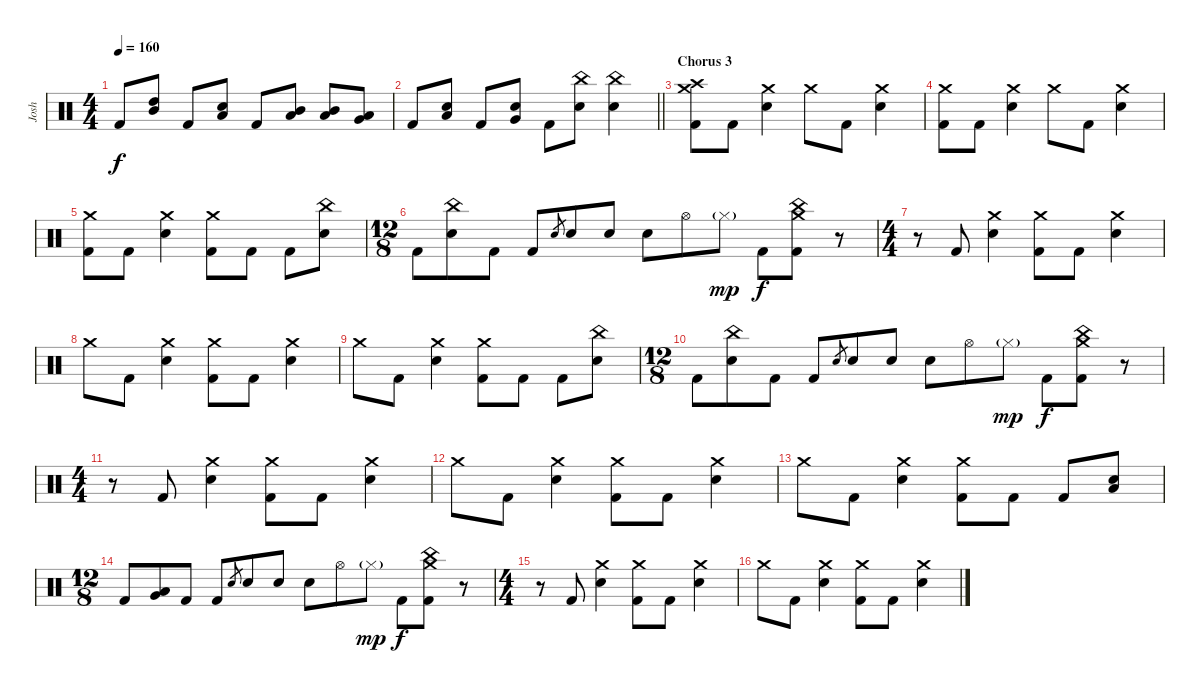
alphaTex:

\track ("Josh" "Josh") {instrument percussion}
\staff {score}
\articulation defaults
\ts (4 4)
\tempo 160
\clef neutral
\ks c "Kick (hit) 2".8{dy f}
("Mid Tom (hit)" "High Tom (hit)").8 "Kick (hit) 2".8 ("Low Tom (hit)" "Electric Snare (hit)").8 "Kick (hit) 2".8 ("Mid Tom (hit)" "Low Tom (hit)").8 ("Mid Tom (hit)" "Low Tom (hit)").8 ("Low Tom (hit)" "Very Low Tom (hit)").8 |
\barLineRight lightlight "Kick (hit) 2".8
("Low Tom (hit)" "Electric Snare (hit)").8 "Kick (hit) 2".8 ("Very Low Tom (hit)" "Electric Snare (hit)").8 "Kick (hit) 2".8 ("China (hit)" "Electric Snare (hit)").8 ("China (hit)" "Electric Snare (hit)").4 |
\section ("" "Chorus 3")
("Crash high (hit)" "Crash medium (hit)" "Kick (hit) 2").8 "Kick (hit) 2".8 ("Crash medium (hit)" "Electric Snare (hit)").4 "Crash medium (hit)".8 "Kick (hit) 2".8 ("Crash medium (hit)" "Electric Snare (hit)").4 |
("Crash medium (hit)" "Kick (hit) 2").8 "Kick (hit) 2".8 ("Crash medium (hit)" "Electric Snare (hit)").4 "Crash medium (hit)".8 "Kick (hit) 2".8 ("Crash medium (hit)" "Electric Snare (hit)").4 |
("Crash medium (hit)" "Kick (hit) 2").8 "Kick (hit) 2".8 ("Crash medium (hit)" "Electric Snare (hit)").4 ("Crash medium (hit)" "Kick (hit) 2").8 "Kick (hit) 2".8 "Kick (hit) 2".8 ("China (hit)" "Electric Snare (hit)").8 |
\ts (12 8)
"Kick (hit) 2".8 ("China (hit)" "Electric Snare (hit)").8 "Kick (hit) 2".8 "Kick (hit) 2".8 "Electric Snare (hit)".8{gr} "Electric Snare (hit)".8 "Electric Snare (hit)".8 "Electric Snare (hit)".8 "Hi-Hat (open)".8 "Hi-Hat (closed)"{g}.8{dy mp} "Kick (hit) 2".8{dy f} ("China (hit)" "Crash medium (hit)" "Kick (hit) 2").8 r.8 |
\ts (4 4)
r.8 "Kick (hit) 2".8 ("Crash medium (hit)" "Electric Snare (hit)").4 ("Crash medium (hit)" "Kick (hit) 2").8 "Kick (hit) 2".8 ("Crash medium (hit)" "Electric Snare (hit)").4 |
"Crash medium (hit)".8 "Kick (hit) 2".8 ("Crash medium (hit)" "Electric Snare (hit)").4 ("Crash medium (hit)" "Kick (hit) 2").8 "Kick (hit) 2".8 ("Crash medium (hit)" "Electric Snare (hit)").4 |
"Crash medium (hit)".8 "Kick (hit) 2".8 ("Crash medium (hit)" "Electric Snare (hit)").4 ("Crash medium (hit)" "Kick (hit) 2").8 "Kick (hit) 2".8 "Kick (hit) 2".8 ("China (hit)" "Electric Snare (hit)").8 |
\ts (12 8)
"Kick (hit) 2".8 ("China (hit)" "Electric Snare (hit)").8 "Kick (hit) 2".8 "Kick (hit) 2".8 "Electric Snare (hit)".8{gr} "Electric Snare (hit)".8 "Electric Snare (hit)".8 "Electric Snare (hit)".8 "Hi-Hat (open)".8 "Hi-Hat (closed)"{g}.8{dy mp} "Kick (hit) 2".8{dy f} ("China (hit)" "Crash medium (hit)" "Kick (hit) 2").8 r.8 |
\ts (4 4)
r.8 "Kick (hit) 2".8 ("Crash medium (hit)" "Electric Snare (hit)").4 ("Crash medium (hit)" "Kick (hit) 2").8 "Kick (hit) 2".8 ("Crash medium (hit)" "Electric Snare (hit)").4 |
"Crash medium (hit)".8 "Kick (hit) 2".8 ("Crash medium (hit)" "Electric Snare (hit)").4 ("Crash medium (hit)" "Kick (hit) 2").8 "Kick (hit) 2".8 ("Crash medium (hit)" "Electric Snare (hit)").4 |
"Crash medium (hit)".8 "Kick (hit) 2".8 ("Crash medium (hit)" "Electric Snare (hit)").4 ("Crash medium (hit)" "Kick (hit) 2").8 "Kick (hit) 2".8 "Kick (hit) 2".8 ("Low Tom (hit)" "Electric Snare (hit)").8 |
\ts (12 8)
"Kick (hit) 2".8 ("Low Tom (hit)" "Very Low Tom (hit)").8 "Kick (hit) 2".8 "Kick (hit) 2".8 "Electric Snare (hit)".8{gr} "Electric Snare (hit)".8 "Electric Snare (hit)".8 "Electric Snare (hit)".8 "Hi-Hat (open)".8 "Hi-Hat (closed)"{g}.8{dy mp} "Kick (hit) 2".8{dy f} ("China (hit)" "Crash medium (hit)" "Kick (hit) 2").8 r.8 |
\ts (4 4)
r.8 "Kick (hit) 2".8 ("Crash medium (hit)" "Electric Snare (hit)").4 ("Crash medium (hit)" "Kick (hit) 2").8 "Kick (hit) 2".8 ("Crash medium (hit)" "Electric Snare (hit)").4 |
"Crash medium (hit)".8 "Kick (hit) 2".8 ("Crash medium (hit)" "Electric Snare (hit)").4 ("Crash medium (hit)" "Kick (hit) 2").8 "Kick (hit) 2".8 ("Crash medium (hit)" "Electric Snare (hit)").4
